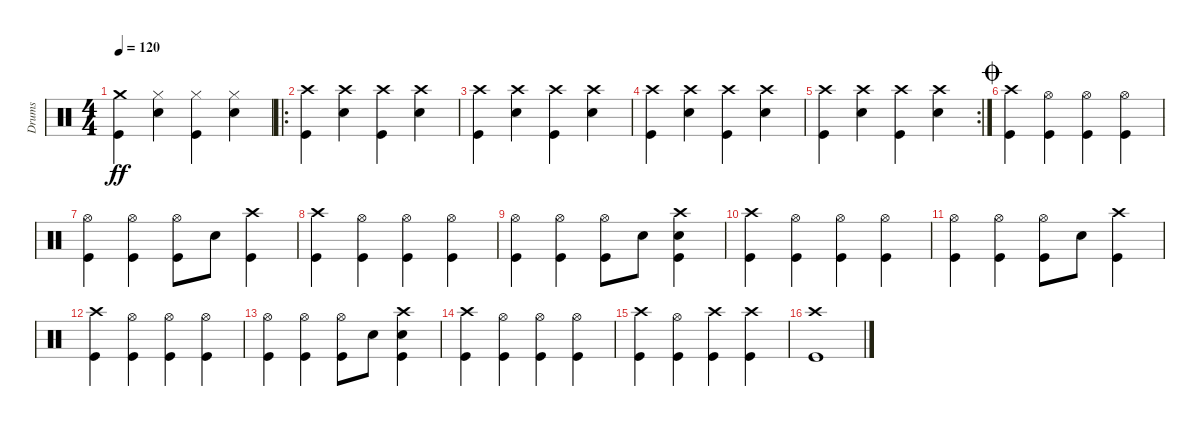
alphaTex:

\track ("Drums" "Drums") {instrument percussion}
\staff {score}
\articulation defaults
\ts (4 4)
\tempo 120
\clef neutral
\ks c
("Crash medium (hit)" "Kick (hit)").4{dy ff} ("Hi-Hat (closed)" "Snare (hit) 2").4 ("Hi-Hat (closed)" "Kick (hit)").4 ("Hi-Hat (closed)" "Snare (hit) 2").4 |
\ro
("Crash high (hit)" "Kick (hit)").4 ("Crash high (hit)" "Snare (hit) 2").4 ("Crash high (hit)" "Kick (hit)").4 ("Crash high (hit)" "Snare (hit) 2").4 |
("Crash high (hit)" "Kick (hit)").4 ("Crash high (hit)" "Snare (hit) 2").4 ("Crash high (hit)" "Kick (hit)").4 ("Crash high (hit)" "Snare (hit) 2").4 |
("Crash high (hit)" "Kick (hit)").4 ("Crash high (hit)" "Snare (hit) 2").4 ("Crash high (hit)" "Kick (hit)").4 ("Crash high (hit)" "Snare (hit) 2").4 |
\rc 2
("Crash high (hit)" "Kick (hit)").4 ("Crash high (hit)" "Snare (hit) 2").4 ("Crash high (hit)" "Kick (hit)").4 ("Crash high (hit)" "Snare (hit) 2").4 |
\jump coda
("Crash high (hit)" "Kick (hit)").4 ("Hi-Hat (open)" "Kick (hit)").4 ("Hi-Hat (open)" "Kick (hit)").4 ("Hi-Hat (open)" "Kick (hit)").4 |
("Hi-Hat (open)" "Kick (hit)").4 ("Hi-Hat (open)" "Kick (hit)").4 ("Hi-Hat (open)" "Kick (hit)").8 "Snare (hit) 2".8 ("Crash high (hit)" "Kick (hit)").4 |
("Crash high (hit)" "Kick (hit)").4 ("Hi-Hat (open)" "Kick (hit)").4 ("Hi-Hat (open)" "Kick (hit)").4 ("Hi-Hat (open)" "Kick (hit)").4 |
("Hi-Hat (open)" "Kick (hit)").4 ("Hi-Hat (open)" "Kick (hit)").4 ("Hi-Hat (open)" "Kick (hit)").8 "Snare (hit) 2".8 ("Crash high (hit)" "Snare (hit) 2" "Kick (hit)").4 |
("Crash high (hit)" "Kick (hit)").4 ("Hi-Hat (open)" "Kick (hit)").4 ("Hi-Hat (open)" "Kick (hit)").4 ("Hi-Hat (open)" "Kick (hit)").4 |
("Hi-Hat (open)" "Kick (hit)").4 ("Hi-Hat (open)" "Kick (hit)").4 ("Hi-Hat (open)" "Kick (hit)").8 "Snare (hit) 2".8 ("Crash high (hit)" "Kick (hit)").4 |
("Crash high (hit)" "Kick (hit)").4 ("Hi-Hat (open)" "Kick (hit)").4 ("Hi-Hat (open)" "Kick (hit)").4 ("Hi-Hat (open)" "Kick (hit)").4 |
("Hi-Hat (open)" "Kick (hit)").4 ("Hi-Hat (open)" "Kick (hit)").4 ("Hi-Hat (open)" "Kick (hit)").8 "Snare (hit) 2".8 ("Crash high (hit)" "Snare (hit) 2" "Kick (hit)").4 |
("Crash high (hit)" "Kick (hit)").4 ("Hi-Hat (open)" "Kick (hit)").4 ("Hi-Hat (open)" "Kick (hit)").4 ("Hi-Hat (open)" "Kick (hit)").4 |
("Crash high (hit)" "Kick (hit)").4 ("Hi-Hat (open)" "Kick (hit)").4 ("Crash high (hit)" "Kick (hit)").4 ("Crash high (hit)" "Kick (hit)").4 |
("Crash high (hit)" "Kick (hit)").1
